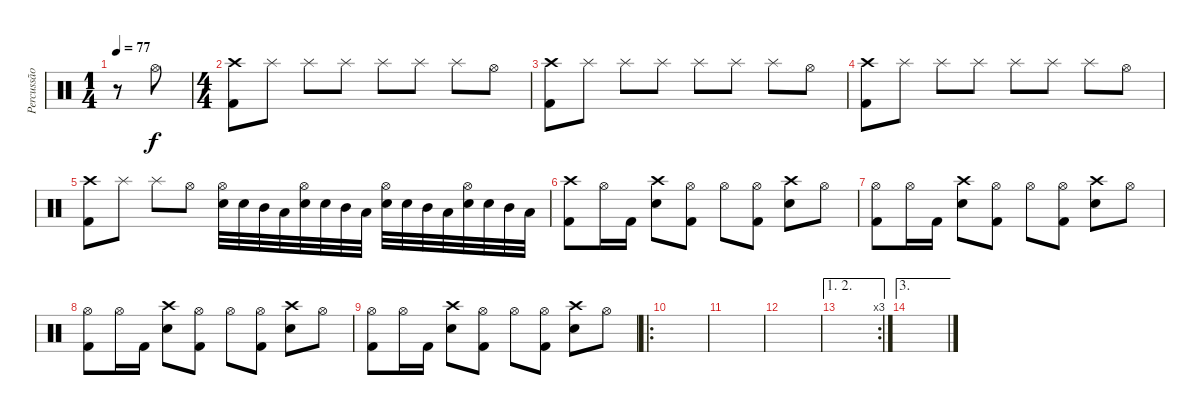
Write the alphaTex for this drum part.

\track ("Percussão" "Percussão") {instrument percussion}
\staff {score}
\articulation defaults
\ts (1 4)
\tempo 77
\clef neutral
\ks c
r.8{dy f} "Hi-Hat (open)".8 |
\ts (4 4)
("Crash high (hit)" "Kick (hit) 2").8 "Splash (hit)".8 "Splash (hit)".8 "Splash (hit)".8 "Splash (hit)".8 "Splash (hit)".8 "Splash (hit)".8 "Hi-Hat (open)".8 |
("Crash high (hit)" "Kick (hit) 2").8 "Splash (hit)".8 "Splash (hit)".8 "Splash (hit)".8 "Splash (hit)".8 "Splash (hit)".8 "Splash (hit)".8 "Hi-Hat (open)".8 |
("Crash high (hit)" "Kick (hit) 2").8 "Splash (hit)".8 "Splash (hit)".8 "Splash (hit)".8 "Splash (hit)".8 "Splash (hit)".8 "Splash (hit)".8 "Hi-Hat (open)".8 |
("Crash high (hit)" "Kick (hit) 2").8 "Splash (hit)".8 "Splash (hit)".8 "Hi-Hat (open)".8 ("Hi-Hat (open)" "Electric Snare (hit)").32 "Electric Snare (hit)".32 "Mid Tom (hit)".32 "Low Tom (hit)".32 ("Hi-Hat (open)" "Electric Snare (hit)").32 "Electric Snare (hit)".32 "Mid Tom (hit)".32 "Low Tom (hit)".32 ("Hi-Hat (open)" "Electric Snare (hit)").32 "Electric Snare (hit)".32 "Mid Tom (hit)".32 "Low Tom (hit)".32 ("Hi-Hat (open)" "Electric Snare (hit)").32 "Electric Snare (hit)".32 "Mid Tom (hit)".32 "Low Tom (hit)".32 |
("Crash high (hit)" "Kick (hit) 2").8 "Hi-Hat (open)".16 "Kick (hit) 2".16 ("Crash high (hit)" "Electric Snare (hit)").8 ("Hi-Hat (open)" "Kick (hit) 2").8 "Hi-Hat (open)".8 ("Hi-Hat (open)" "Kick (hit) 2").8 ("Crash high (hit)" "Electric Snare (hit)").8 "Hi-Hat (open)".8 |
("Hi-Hat (open)" "Kick (hit) 2").8 "Hi-Hat (open)".16 "Kick (hit) 2".16 ("Crash high (hit)" "Electric Snare (hit)").8 ("Hi-Hat (open)" "Kick (hit) 2").8 "Hi-Hat (open)".8 ("Hi-Hat (open)" "Kick (hit) 2").8 ("Crash high (hit)" "Electric Snare (hit)").8 "Hi-Hat (open)".8 |
("Hi-Hat (open)" "Kick (hit) 2").8 "Hi-Hat (open)".16 "Kick (hit) 2".16 ("Crash high (hit)" "Electric Snare (hit)").8 ("Hi-Hat (open)" "Kick (hit) 2").8 "Hi-Hat (open)".8 ("Hi-Hat (open)" "Kick (hit) 2").8 ("Crash high (hit)" "Electric Snare (hit)").8 "Hi-Hat (open)".8 |
("Hi-Hat (open)" "Kick (hit) 2").8 "Hi-Hat (open)".16 "Kick (hit) 2".16 ("Crash high (hit)" "Electric Snare (hit)").8 ("Hi-Hat (open)" "Kick (hit) 2").8 "Hi-Hat (open)".8 ("Hi-Hat (open)" "Kick (hit) 2").8 ("Crash high (hit)" "Electric Snare (hit)").8 "Hi-Hat (open)".8 |
\ro
|
|
|
\ae (1 2)
\rc 3
|
\ae 3
